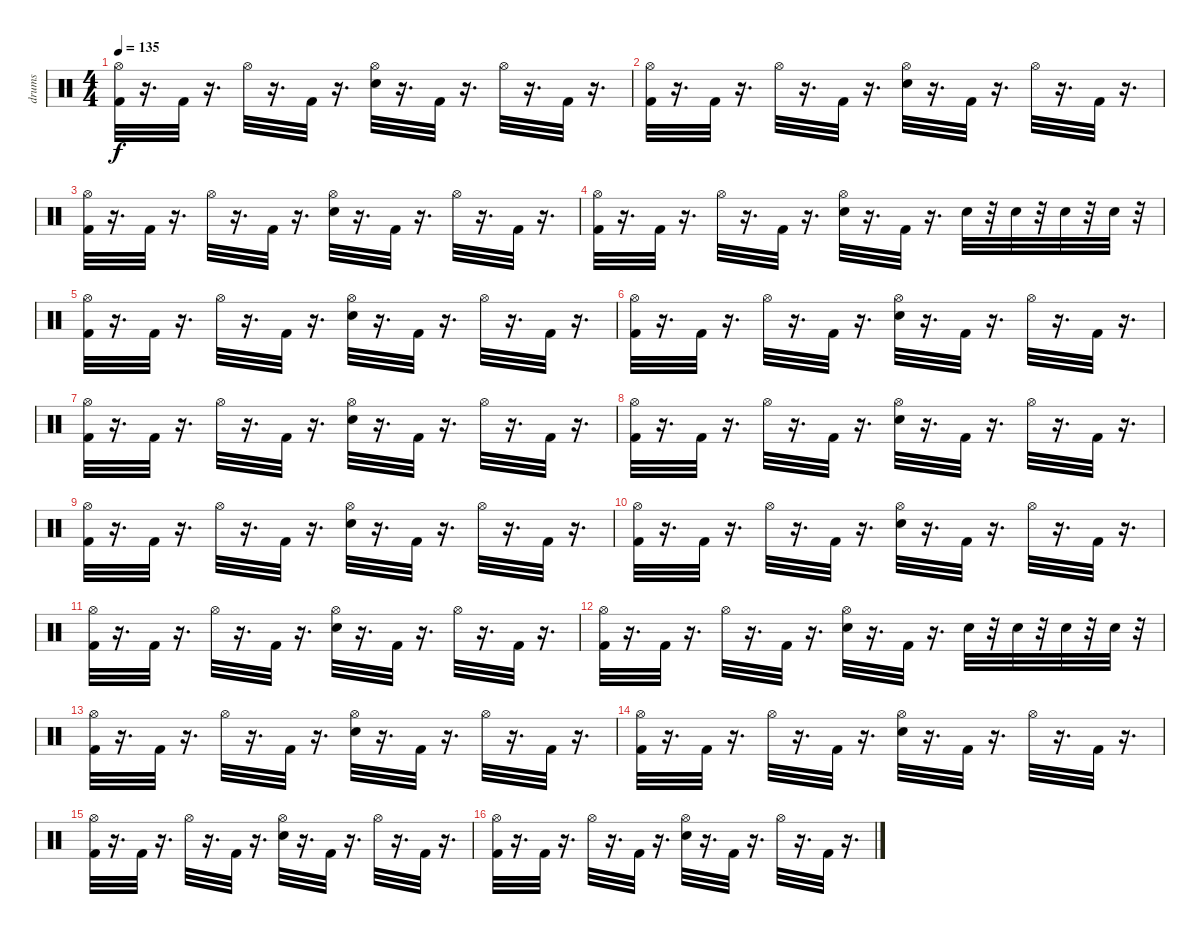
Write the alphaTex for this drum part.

\track ("drums" "drums") {instrument percussion}
\staff {score}
\articulation defaults
\ts (4 4)
\tempo 135
\clef neutral
\ks c
("Hi-Hat (open)" "Kick (hit) 2").32{dy f} r.16{d} "Kick (hit) 2".32 r.16{d} "Hi-Hat (open)".32 r.16{d} "Kick (hit) 2".32 r.16{d} ("Hi-Hat (open)" "Snare (hit) 2").32 r.16{d} "Kick (hit) 2".32 r.16{d} "Hi-Hat (open)".32 r.16{d} "Kick (hit) 2".32 r.16{d} |
("Hi-Hat (open)" "Kick (hit) 2").32 r.16{d} "Kick (hit) 2".32 r.16{d} "Hi-Hat (open)".32 r.16{d} "Kick (hit) 2".32 r.16{d} ("Hi-Hat (open)" "Snare (hit) 2").32 r.16{d} "Kick (hit) 2".32 r.16{d} "Hi-Hat (open)".32 r.16{d} "Kick (hit) 2".32 r.16{d} |
("Hi-Hat (open)" "Kick (hit) 2").32 r.16{d} "Kick (hit) 2".32 r.16{d} "Hi-Hat (open)".32 r.16{d} "Kick (hit) 2".32 r.16{d} ("Hi-Hat (open)" "Snare (hit) 2").32 r.16{d} "Kick (hit) 2".32 r.16{d} "Hi-Hat (open)".32 r.16{d} "Kick (hit) 2".32 r.16{d} |
("Hi-Hat (open)" "Kick (hit) 2").32 r.16{d} "Kick (hit) 2".32 r.16{d} "Hi-Hat (open)".32 r.16{d} "Kick (hit) 2".32 r.16{d} ("Hi-Hat (open)" "Snare (hit) 2").32 r.16{d} "Kick (hit) 2".32 r.16{d} "Snare (hit) 2".32 r.32 "Snare (hit) 2".32 r.32 "Snare (hit) 2".32 r.32 "Snare (hit) 2".32 r.32 |
("Hi-Hat (open)" "Kick (hit) 2").32 r.16{d} "Kick (hit) 2".32 r.16{d} "Hi-Hat (open)".32 r.16{d} "Kick (hit) 2".32 r.16{d} ("Hi-Hat (open)" "Snare (hit) 2").32 r.16{d} "Kick (hit) 2".32 r.16{d} "Hi-Hat (open)".32 r.16{d} "Kick (hit) 2".32 r.16{d} |
("Hi-Hat (open)" "Kick (hit) 2").32 r.16{d} "Kick (hit) 2".32 r.16{d} "Hi-Hat (open)".32 r.16{d} "Kick (hit) 2".32 r.16{d} ("Hi-Hat (open)" "Snare (hit) 2").32 r.16{d} "Kick (hit) 2".32 r.16{d} "Hi-Hat (open)".32 r.16{d} "Kick (hit) 2".32 r.16{d} |
("Hi-Hat (open)" "Kick (hit) 2").32 r.16{d} "Kick (hit) 2".32 r.16{d} "Hi-Hat (open)".32 r.16{d} "Kick (hit) 2".32 r.16{d} ("Hi-Hat (open)" "Snare (hit) 2").32 r.16{d} "Kick (hit) 2".32 r.16{d} "Hi-Hat (open)".32 r.16{d} "Kick (hit) 2".32 r.16{d} |
("Hi-Hat (open)" "Kick (hit) 2").32 r.16{d} "Kick (hit) 2".32 r.16{d} "Hi-Hat (open)".32 r.16{d} "Kick (hit) 2".32 r.16{d} ("Hi-Hat (open)" "Snare (hit) 2").32 r.16{d} "Kick (hit) 2".32 r.16{d} "Hi-Hat (open)".32 r.16{d} "Kick (hit) 2".32 r.16{d} |
("Hi-Hat (open)" "Kick (hit) 2").32 r.16{d} "Kick (hit) 2".32 r.16{d} "Hi-Hat (open)".32 r.16{d} "Kick (hit) 2".32 r.16{d} ("Hi-Hat (open)" "Snare (hit) 2").32 r.16{d} "Kick (hit) 2".32 r.16{d} "Hi-Hat (open)".32 r.16{d} "Kick (hit) 2".32 r.16{d} |
("Hi-Hat (open)" "Kick (hit) 2").32 r.16{d} "Kick (hit) 2".32 r.16{d} "Hi-Hat (open)".32 r.16{d} "Kick (hit) 2".32 r.16{d} ("Hi-Hat (open)" "Snare (hit) 2").32 r.16{d} "Kick (hit) 2".32 r.16{d} "Hi-Hat (open)".32 r.16{d} "Kick (hit) 2".32 r.16{d} |
("Hi-Hat (open)" "Kick (hit) 2").32 r.16{d} "Kick (hit) 2".32 r.16{d} "Hi-Hat (open)".32 r.16{d} "Kick (hit) 2".32 r.16{d} ("Hi-Hat (open)" "Snare (hit) 2").32 r.16{d} "Kick (hit) 2".32 r.16{d} "Hi-Hat (open)".32 r.16{d} "Kick (hit) 2".32 r.16{d} |
("Hi-Hat (open)" "Kick (hit) 2").32 r.16{d} "Kick (hit) 2".32 r.16{d} "Hi-Hat (open)".32 r.16{d} "Kick (hit) 2".32 r.16{d} ("Hi-Hat (open)" "Snare (hit) 2").32 r.16{d} "Kick (hit) 2".32 r.16{d} "Snare (hit) 2".32 r.32 "Snare (hit) 2".32 r.32 "Snare (hit) 2".32 r.32 "Snare (hit) 2".32 r.32 |
("Hi-Hat (open)" "Kick (hit) 2").32 r.16{d} "Kick (hit) 2".32 r.16{d} "Hi-Hat (open)".32 r.16{d} "Kick (hit) 2".32 r.16{d} ("Hi-Hat (open)" "Snare (hit) 2").32 r.16{d} "Kick (hit) 2".32 r.16{d} "Hi-Hat (open)".32 r.16{d} "Kick (hit) 2".32 r.16{d} |
("Hi-Hat (open)" "Kick (hit) 2").32 r.16{d} "Kick (hit) 2".32 r.16{d} "Hi-Hat (open)".32 r.16{d} "Kick (hit) 2".32 r.16{d} ("Hi-Hat (open)" "Snare (hit) 2").32 r.16{d} "Kick (hit) 2".32 r.16{d} "Hi-Hat (open)".32 r.16{d} "Kick (hit) 2".32 r.16{d} |
("Hi-Hat (open)" "Kick (hit) 2").32 r.16{d} "Kick (hit) 2".32 r.16{d} "Hi-Hat (open)".32 r.16{d} "Kick (hit) 2".32 r.16{d} ("Hi-Hat (open)" "Snare (hit) 2").32 r.16{d} "Kick (hit) 2".32 r.16{d} "Hi-Hat (open)".32 r.16{d} "Kick (hit) 2".32 r.16{d} |
("Hi-Hat (open)" "Kick (hit) 2").32 r.16{d} "Kick (hit) 2".32 r.16{d} "Hi-Hat (open)".32 r.16{d} "Kick (hit) 2".32 r.16{d} ("Hi-Hat (open)" "Snare (hit) 2").32 r.16{d} "Kick (hit) 2".32 r.16{d} "Hi-Hat (open)".32 r.16{d} "Kick (hit) 2".32 r.16{d}
